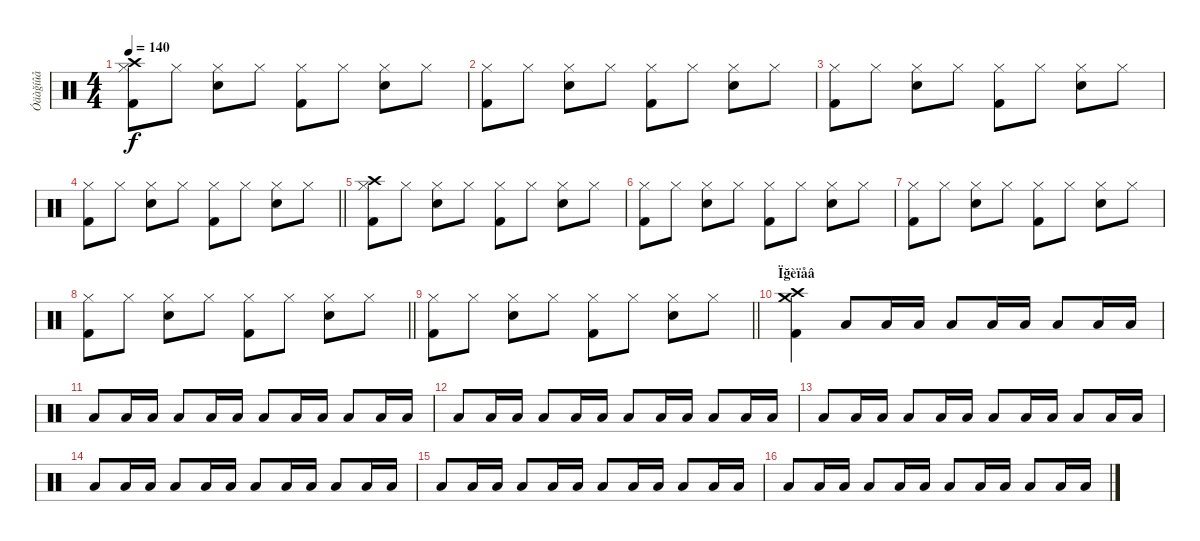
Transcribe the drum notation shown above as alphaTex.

\track ("Óäàğíûå" "Óäàğíûå") {instrument percussion}
\staff {score}
\articulation defaults
\ts (4 4)
\tempo 140
\clef neutral
\ks c
("Hi-Hat (closed)" "Kick (hit) 2" "Crash high (hit)").8{dy f} "Hi-Hat (closed)".8 ("Hi-Hat (closed)" "Snare (hit) 2").8 "Hi-Hat (closed)".8 ("Hi-Hat (closed)" "Kick (hit) 2").8 "Hi-Hat (closed)".8 ("Hi-Hat (closed)" "Snare (hit) 2").8 "Hi-Hat (closed)".8 |
("Hi-Hat (closed)" "Kick (hit) 2").8 "Hi-Hat (closed)".8 ("Hi-Hat (closed)" "Snare (hit) 2").8 "Hi-Hat (closed)".8 ("Hi-Hat (closed)" "Kick (hit) 2").8 "Hi-Hat (closed)".8 ("Hi-Hat (closed)" "Snare (hit) 2").8 "Hi-Hat (closed)".8 |
("Hi-Hat (closed)" "Kick (hit) 2").8 "Hi-Hat (closed)".8 ("Hi-Hat (closed)" "Snare (hit) 2").8 "Hi-Hat (closed)".8 ("Hi-Hat (closed)" "Kick (hit) 2").8 "Hi-Hat (closed)".8 ("Hi-Hat (closed)" "Snare (hit) 2").8 "Hi-Hat (closed)".8 |
\barLineRight lightlight
("Hi-Hat (closed)" "Kick (hit) 2").8 "Hi-Hat (closed)".8 ("Hi-Hat (closed)" "Snare (hit) 2").8 "Hi-Hat (closed)".8 ("Hi-Hat (closed)" "Kick (hit) 2").8 "Hi-Hat (closed)".8 ("Hi-Hat (closed)" "Snare (hit) 2").8 "Hi-Hat (closed)".8 |
("Hi-Hat (closed)" "Kick (hit) 2" "Crash high (hit)").8 "Hi-Hat (closed)".8 ("Hi-Hat (closed)" "Snare (hit) 2").8 "Hi-Hat (closed)".8 ("Hi-Hat (closed)" "Kick (hit) 2").8 "Hi-Hat (closed)".8 ("Hi-Hat (closed)" "Snare (hit) 2").8 "Hi-Hat (closed)".8 |
("Hi-Hat (closed)" "Kick (hit) 2").8 "Hi-Hat (closed)".8 ("Hi-Hat (closed)" "Snare (hit) 2").8 "Hi-Hat (closed)".8 ("Hi-Hat (closed)" "Kick (hit) 2").8 "Hi-Hat (closed)".8 ("Hi-Hat (closed)" "Snare (hit) 2").8 "Hi-Hat (closed)".8 |
("Hi-Hat (closed)" "Kick (hit) 2").8 "Hi-Hat (closed)".8 ("Hi-Hat (closed)" "Snare (hit) 2").8 "Hi-Hat (closed)".8 ("Hi-Hat (closed)" "Kick (hit) 2").8 "Hi-Hat (closed)".8 ("Hi-Hat (closed)" "Snare (hit) 2").8 "Hi-Hat (closed)".8 |
\barLineRight lightlight
("Hi-Hat (closed)" "Kick (hit) 2").8 "Hi-Hat (closed)".8 ("Hi-Hat (closed)" "Snare (hit) 2").8 "Hi-Hat (closed)".8 ("Hi-Hat (closed)" "Kick (hit) 2").8 "Hi-Hat (closed)".8 ("Hi-Hat (closed)" "Snare (hit) 2").8 "Hi-Hat (closed)".8 |
\barLineRight lightlight
("Hi-Hat (closed)" "Kick (hit) 2").8 "Hi-Hat (closed)".8 ("Hi-Hat (closed)" "Snare (hit) 2").8 "Hi-Hat (closed)".8 ("Hi-Hat (closed)" "Kick (hit) 2").8 "Hi-Hat (closed)".8 ("Hi-Hat (closed)" "Snare (hit) 2").8 "Hi-Hat (closed)".8 |
\section ("" "Ïğèïåâ")
("Crash high (hit)" "Kick (hit) 2" "Crash medium (hit)").4 "Low Tom (hit)".8 "Low Tom (hit)".16 "Low Tom (hit)".16 "Low Tom (hit)".8 "Low Tom (hit)".16 "Low Tom (hit)".16 "Low Tom (hit)".8 "Low Tom (hit)".16 "Low Tom (hit)".16 |
"Low Tom (hit)".8 "Low Tom (hit)".16 "Low Tom (hit)".16 "Low Tom (hit)".8 "Low Tom (hit)".16 "Low Tom (hit)".16 "Low Tom (hit)".8 "Low Tom (hit)".16 "Low Tom (hit)".16 "Low Tom (hit)".8 "Low Tom (hit)".16 "Low Tom (hit)".16 |
"Low Tom (hit)".8 "Low Tom (hit)".16 "Low Tom (hit)".16 "Low Tom (hit)".8 "Low Tom (hit)".16 "Low Tom (hit)".16 "Low Tom (hit)".8 "Low Tom (hit)".16 "Low Tom (hit)".16 "Low Tom (hit)".8 "Low Tom (hit)".16 "Low Tom (hit)".16 |
"Low Tom (hit)".8 "Low Tom (hit)".16 "Low Tom (hit)".16 "Low Tom (hit)".8 "Low Tom (hit)".16 "Low Tom (hit)".16 "Low Tom (hit)".8 "Low Tom (hit)".16 "Low Tom (hit)".16 "Low Tom (hit)".8 "Low Tom (hit)".16 "Low Tom (hit)".16 |
"Low Tom (hit)".8 "Low Tom (hit)".16 "Low Tom (hit)".16 "Low Tom (hit)".8 "Low Tom (hit)".16 "Low Tom (hit)".16 "Low Tom (hit)".8 "Low Tom (hit)".16 "Low Tom (hit)".16 "Low Tom (hit)".8 "Low Tom (hit)".16 "Low Tom (hit)".16 |
"Low Tom (hit)".8 "Low Tom (hit)".16 "Low Tom (hit)".16 "Low Tom (hit)".8 "Low Tom (hit)".16 "Low Tom (hit)".16 "Low Tom (hit)".8 "Low Tom (hit)".16 "Low Tom (hit)".16 "Low Tom (hit)".8 "Low Tom (hit)".16 "Low Tom (hit)".16 |
"Low Tom (hit)".8 "Low Tom (hit)".16 "Low Tom (hit)".16 "Low Tom (hit)".8 "Low Tom (hit)".16 "Low Tom (hit)".16 "Low Tom (hit)".8 "Low Tom (hit)".16 "Low Tom (hit)".16 "Low Tom (hit)".8 "Low Tom (hit)".16 "Low Tom (hit)".16
